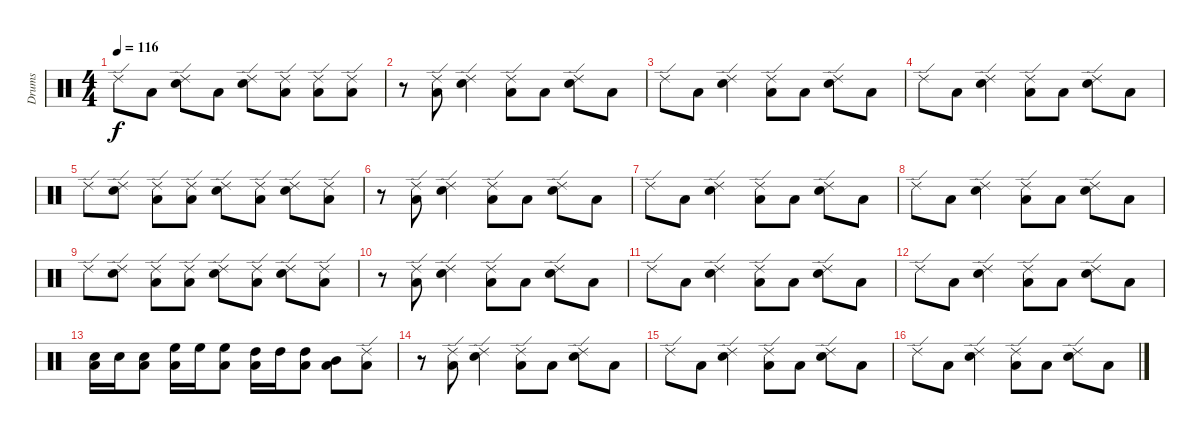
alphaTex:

\track ("Drums" "Drums") {instrument percussion}
\staff {score}
\articulation defaults
\ts (4 4)
\tempo 116
\clef neutral
\ks c "Ride (edge) 2".8{dy f} "Low Floor Tom (hit)".8
("Snare (hit) 2" "Ride (edge) 2").8 "Low Floor Tom (hit)".8 ("Snare (hit) 2" "Ride (edge) 2").8 ("Low Floor Tom (hit)" "Ride (edge) 2").8 ("Low Floor Tom (hit)" "Ride (edge) 2").8 ("Low Floor Tom (hit)" "Ride (edge) 2").8 |
r.8 ("Low Floor Tom (hit)" "Ride (edge) 2").8 ("Snare (hit) 2" "Ride (edge) 2").4 ("Low Floor Tom (hit)" "Ride (edge) 2").8 "Low Floor Tom (hit)".8 ("Snare (hit) 2" "Ride (edge) 2").8 "Low Floor Tom (hit)".8 |
"Ride (edge) 2".8 "Low Floor Tom (hit)".8 ("Snare (hit) 2" "Ride (edge) 2").4 ("Low Floor Tom (hit)" "Ride (edge) 2").8 "Low Floor Tom (hit)".8 ("Snare (hit) 2" "Ride (edge) 2").8 "Low Floor Tom (hit)".8 |
"Ride (edge) 2".8 "Low Floor Tom (hit)".8 ("Snare (hit) 2" "Ride (edge) 2").4 ("Low Floor Tom (hit)" "Ride (edge) 2").8 "Low Floor Tom (hit)".8 ("Snare (hit) 2" "Ride (edge) 2").8 "Low Floor Tom (hit)".8 |
"Ride (edge) 2".8 ("Snare (hit) 2" "Ride (edge) 2").8 ("Low Floor Tom (hit)" "Ride (edge) 2").8 ("Low Floor Tom (hit)" "Ride (edge) 2").8 ("Snare (hit) 2" "Ride (edge) 2").8 ("Low Floor Tom (hit)" "Ride (edge) 2").8 ("Snare (hit) 2" "Ride (edge) 2").8 ("Low Floor Tom (hit)" "Ride (edge) 2").8 |
r.8 ("Low Floor Tom (hit)" "Ride (edge) 2").8 ("Snare (hit) 2" "Ride (edge) 2").4 ("Low Floor Tom (hit)" "Ride (edge) 2").8 "Low Floor Tom (hit)".8 ("Snare (hit) 2" "Ride (edge) 2").8 "Low Floor Tom (hit)".8 |
"Ride (edge) 2".8 "Low Floor Tom (hit)".8 ("Snare (hit) 2" "Ride (edge) 2").4 ("Low Floor Tom (hit)" "Ride (edge) 2").8 "Low Floor Tom (hit)".8 ("Snare (hit) 2" "Ride (edge) 2").8 "Low Floor Tom (hit)".8 |
"Ride (edge) 2".8 "Low Floor Tom (hit)".8 ("Snare (hit) 2" "Ride (edge) 2").4 ("Low Floor Tom (hit)" "Ride (edge) 2").8 "Low Floor Tom (hit)".8 ("Snare (hit) 2" "Ride (edge) 2").8 "Low Floor Tom (hit)".8 |
"Ride (edge) 2".8 ("Snare (hit) 2" "Ride (edge) 2").8 ("Low Floor Tom (hit)" "Ride (edge) 2").8 ("Low Floor Tom (hit)" "Ride (edge) 2").8 ("Snare (hit) 2" "Ride (edge) 2").8 ("Low Floor Tom (hit)" "Ride (edge) 2").8 ("Snare (hit) 2" "Ride (edge) 2").8 ("Low Floor Tom (hit)" "Ride (edge) 2").8 |
r.8 ("Low Floor Tom (hit)" "Ride (edge) 2").8 ("Snare (hit) 2" "Ride (edge) 2").4 ("Low Floor Tom (hit)" "Ride (edge) 2").8 "Low Floor Tom (hit)".8 ("Snare (hit) 2" "Ride (edge) 2").8 "Low Floor Tom (hit)".8 |
"Ride (edge) 2".8 "Low Floor Tom (hit)".8 ("Snare (hit) 2" "Ride (edge) 2").4 ("Low Floor Tom (hit)" "Ride (edge) 2").8 "Low Floor Tom (hit)".8 ("Snare (hit) 2" "Ride (edge) 2").8 "Low Floor Tom (hit)".8 |
"Ride (edge) 2".8 "Low Floor Tom (hit)".8 ("Snare (hit) 2" "Ride (edge) 2").4 ("Low Floor Tom (hit)" "Ride (edge) 2").8 "Low Floor Tom (hit)".8 ("Snare (hit) 2" "Ride (edge) 2").8 "Low Floor Tom (hit)".8 |
("Snare (hit) 2" "Low Floor Tom (hit)").16 "Snare (hit) 2".16 ("Snare (hit) 2" "Low Floor Tom (hit)").8 ("Low Floor Tom (hit)" "High Floor Tom (hit)").16 "High Floor Tom (hit)".16 ("Low Floor Tom (hit)" "High Floor Tom (hit)").8 ("Low Floor Tom (hit)" "High Tom (hit)").16 "High Tom (hit)".16 ("Low Floor Tom (hit)" "High Tom (hit)").8 ("Low Floor Tom (hit)" "Mid Tom (hit)").8 ("Low Floor Tom (hit)" "Ride (edge) 2").8 |
r.8 ("Low Floor Tom (hit)" "Ride (edge) 2").8 ("Snare (hit) 2" "Ride (edge) 2").4 ("Low Floor Tom (hit)" "Ride (edge) 2").8 "Low Floor Tom (hit)".8 ("Snare (hit) 2" "Ride (edge) 2").8 "Low Floor Tom (hit)".8 |
"Ride (edge) 2".8 "Low Floor Tom (hit)".8 ("Snare (hit) 2" "Ride (edge) 2").4 ("Low Floor Tom (hit)" "Ride (edge) 2").8 "Low Floor Tom (hit)".8 ("Snare (hit) 2" "Ride (edge) 2").8 "Low Floor Tom (hit)".8 |
"Ride (edge) 2".8 "Low Floor Tom (hit)".8 ("Snare (hit) 2" "Ride (edge) 2").4 ("Low Floor Tom (hit)" "Ride (edge) 2").8 "Low Floor Tom (hit)".8 ("Snare (hit) 2" "Ride (edge) 2").8 "Low Floor Tom (hit)".8
